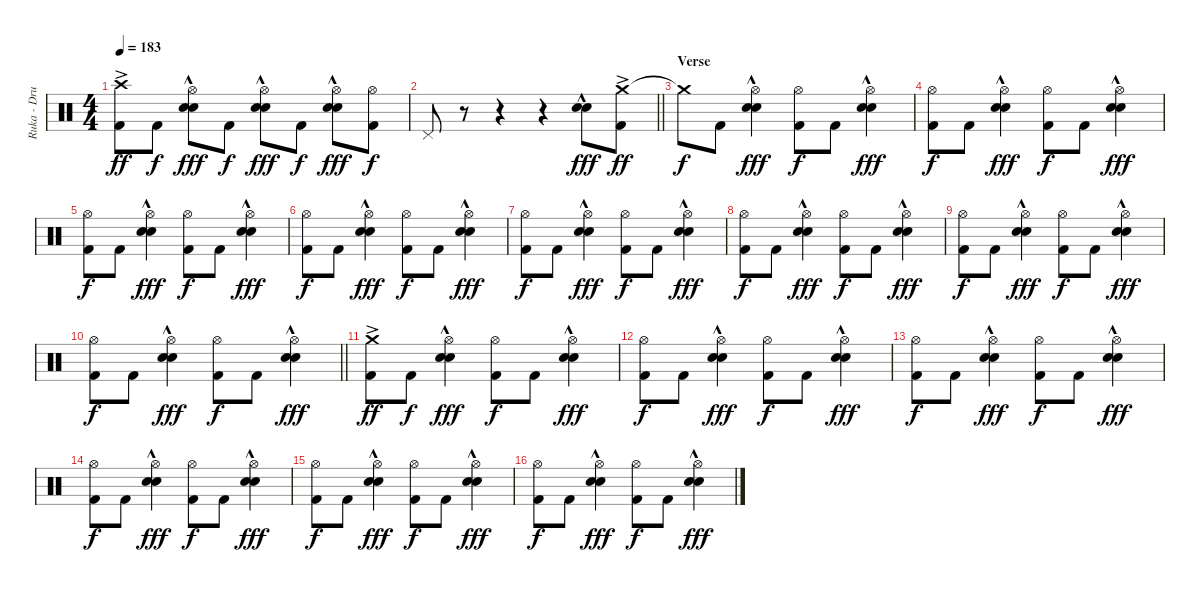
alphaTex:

\track ("Ruka - Drums" "Ruka - Dru") {instrument percussion}
\staff {score}
\articulation defaults
\ts (4 4)
\tempo 183
\clef neutral
\ks c
("Crash high (hit)"{ac} "Kick (hit) 2").8{dy ff} "Kick (hit) 2".8{dy f} ("Hi-Hat (open)" "Electric Snare (hit)"{hac} "Snare (hit) 2"{hac}).8{dy fff} "Kick (hit) 2".8{dy f} ("Hi-Hat (open)" "Electric Snare (hit)"{hac} "Snare (hit) 2"{hac}).8{dy fff} "Kick (hit) 2".8{dy f} ("Hi-Hat (open)" "Electric Snare (hit)"{hac} "Snare (hit) 2"{hac}).8{dy fff} ("Hi-Hat (open)" "Kick (hit) 2").8{dy f} |
\barLineRight lightlight "Pedal Hi-Hat (hit)".8
r.8 r.4 r.4 ("Electric Snare (hit)"{hac} "Snare (hit) 2"{hac}).8{dy fff} ("Crash medium (hit)"{ac} "Kick (hit) 2").8{dy ff} |
\section ("" "Verse")
"Crash medium (hit)"{t}.8{dy f} "Kick (hit) 2".8 ("Hi-Hat (open)" "Electric Snare (hit)"{hac} "Snare (hit) 2"{hac}).4{dy fff} ("Hi-Hat (open)" "Kick (hit) 2").8{dy f} "Kick (hit) 2".8 ("Hi-Hat (open)" "Electric Snare (hit)"{hac} "Snare (hit) 2"{hac}).4{dy fff} |
("Hi-Hat (open)" "Kick (hit) 2").8{dy f} "Kick (hit) 2".8 ("Hi-Hat (open)" "Electric Snare (hit)"{hac} "Snare (hit) 2"{hac}).4{dy fff} ("Hi-Hat (open)" "Kick (hit) 2").8{dy f} "Kick (hit) 2".8 ("Hi-Hat (open)" "Electric Snare (hit)"{hac} "Snare (hit) 2"{hac}).4{dy fff} |
("Hi-Hat (open)" "Kick (hit) 2").8{dy f} "Kick (hit) 2".8 ("Hi-Hat (open)" "Electric Snare (hit)"{hac} "Snare (hit) 2"{hac}).4{dy fff} ("Hi-Hat (open)" "Kick (hit) 2").8{dy f} "Kick (hit) 2".8 ("Hi-Hat (open)" "Electric Snare (hit)"{hac} "Snare (hit) 2"{hac}).4{dy fff} |
("Hi-Hat (open)" "Kick (hit) 2").8{dy f} "Kick (hit) 2".8 ("Hi-Hat (open)" "Electric Snare (hit)"{hac} "Snare (hit) 2"{hac}).4{dy fff} ("Hi-Hat (open)" "Kick (hit) 2").8{dy f} "Kick (hit) 2".8 ("Hi-Hat (open)" "Electric Snare (hit)"{hac} "Snare (hit) 2"{hac}).4{dy fff} |
("Hi-Hat (open)" "Kick (hit) 2").8{dy f} "Kick (hit) 2".8 ("Hi-Hat (open)" "Electric Snare (hit)"{hac} "Snare (hit) 2"{hac}).4{dy fff} ("Hi-Hat (open)" "Kick (hit) 2").8{dy f} "Kick (hit) 2".8 ("Hi-Hat (open)" "Electric Snare (hit)"{hac} "Snare (hit) 2"{hac}).4{dy fff} |
("Hi-Hat (open)" "Kick (hit) 2").8{dy f} "Kick (hit) 2".8 ("Hi-Hat (open)" "Electric Snare (hit)"{hac} "Snare (hit) 2"{hac}).4{dy fff} ("Hi-Hat (open)" "Kick (hit) 2").8{dy f} "Kick (hit) 2".8 ("Hi-Hat (open)" "Electric Snare (hit)"{hac} "Snare (hit) 2"{hac}).4{dy fff} |
("Hi-Hat (open)" "Kick (hit) 2").8{dy f} "Kick (hit) 2".8 ("Hi-Hat (open)" "Electric Snare (hit)"{hac} "Snare (hit) 2"{hac}).4{dy fff} ("Hi-Hat (open)" "Kick (hit) 2").8{dy f} "Kick (hit) 2".8 ("Hi-Hat (open)" "Electric Snare (hit)"{hac} "Snare (hit) 2"{hac}).4{dy fff} |
\barLineRight lightlight
("Hi-Hat (open)" "Kick (hit) 2").8{dy f} "Kick (hit) 2".8 ("Hi-Hat (open)" "Electric Snare (hit)"{hac} "Snare (hit) 2"{hac}).4{dy fff} ("Hi-Hat (open)" "Kick (hit) 2").8{dy f} "Kick (hit) 2".8 ("Hi-Hat (open)" "Electric Snare (hit)"{hac} "Snare (hit) 2"{hac}).4{dy fff} |
\section ("" "")
("Crash medium (hit)"{ac} "Kick (hit) 2").8{dy ff} "Kick (hit) 2".8{dy f} ("Hi-Hat (open)" "Electric Snare (hit)"{hac} "Snare (hit) 2"{hac}).4{dy fff} ("Hi-Hat (open)" "Kick (hit) 2").8{dy f} "Kick (hit) 2".8 ("Hi-Hat (open)" "Electric Snare (hit)"{hac} "Snare (hit) 2"{hac}).4{dy fff} |
("Hi-Hat (open)" "Kick (hit) 2").8{dy f} "Kick (hit) 2".8 ("Hi-Hat (open)" "Electric Snare (hit)"{hac} "Snare (hit) 2"{hac}).4{dy fff} ("Hi-Hat (open)" "Kick (hit) 2").8{dy f} "Kick (hit) 2".8 ("Hi-Hat (open)" "Electric Snare (hit)"{hac} "Snare (hit) 2"{hac}).4{dy fff} |
("Hi-Hat (open)" "Kick (hit) 2").8{dy f} "Kick (hit) 2".8 ("Hi-Hat (open)" "Electric Snare (hit)"{hac} "Snare (hit) 2"{hac}).4{dy fff} ("Hi-Hat (open)" "Kick (hit) 2").8{dy f} "Kick (hit) 2".8 ("Hi-Hat (open)" "Electric Snare (hit)"{hac} "Snare (hit) 2"{hac}).4{dy fff} |
("Hi-Hat (open)" "Kick (hit) 2").8{dy f} "Kick (hit) 2".8 ("Hi-Hat (open)" "Electric Snare (hit)"{hac} "Snare (hit) 2"{hac}).4{dy fff} ("Hi-Hat (open)" "Kick (hit) 2").8{dy f} "Kick (hit) 2".8 ("Hi-Hat (open)" "Electric Snare (hit)"{hac} "Snare (hit) 2"{hac}).4{dy fff} |
("Hi-Hat (open)" "Kick (hit) 2").8{dy f} "Kick (hit) 2".8 ("Hi-Hat (open)" "Electric Snare (hit)"{hac} "Snare (hit) 2"{hac}).4{dy fff} ("Hi-Hat (open)" "Kick (hit) 2").8{dy f} "Kick (hit) 2".8 ("Hi-Hat (open)" "Electric Snare (hit)"{hac} "Snare (hit) 2"{hac}).4{dy fff} |
("Hi-Hat (open)" "Kick (hit) 2").8{dy f} "Kick (hit) 2".8 ("Hi-Hat (open)" "Electric Snare (hit)"{hac} "Snare (hit) 2"{hac}).4{dy fff} ("Hi-Hat (open)" "Kick (hit) 2").8{dy f} "Kick (hit) 2".8 ("Hi-Hat (open)" "Electric Snare (hit)"{hac} "Snare (hit) 2"{hac}).4{dy fff}
